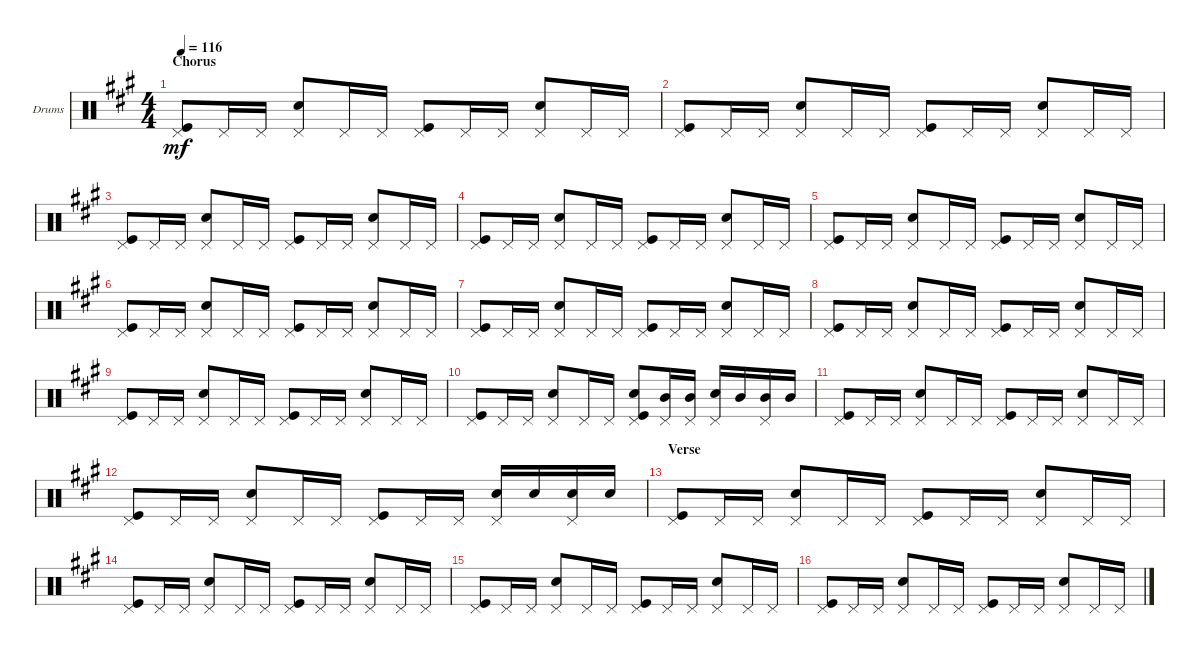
\defaultSystemsLayout 4
\bracketExtendMode groupsimilarinstruments
\firstSystemTrackNameOrientation horizontal
\otherSystemsTrackNameOrientation horizontal
\track ("Drumkit" "Drums") {instrument percussion}
\staff {score}
\articulation defaults
\ts (4 4)
\section ("" "Chorus")
\tempo 116
\clef neutral
\ks a
("Pedal Hi-Hat (hit)" "Kick (hit)").8{dy mf} "Pedal Hi-Hat (hit)".16 "Pedal Hi-Hat (hit)".16 ("Pedal Hi-Hat (hit)" "Snare (hit) 2").8 "Pedal Hi-Hat (hit)".16 "Pedal Hi-Hat (hit)".16 ("Pedal Hi-Hat (hit)" "Kick (hit)").8 "Pedal Hi-Hat (hit)".16 "Pedal Hi-Hat (hit)".16 ("Pedal Hi-Hat (hit)" "Snare (hit) 2").8 "Pedal Hi-Hat (hit)".16 "Pedal Hi-Hat (hit)".16 |
("Pedal Hi-Hat (hit)" "Kick (hit)").8 "Pedal Hi-Hat (hit)".16 "Pedal Hi-Hat (hit)".16 ("Pedal Hi-Hat (hit)" "Snare (hit) 2").8 "Pedal Hi-Hat (hit)".16 "Pedal Hi-Hat (hit)".16 ("Pedal Hi-Hat (hit)" "Kick (hit)").8 "Pedal Hi-Hat (hit)".16 "Pedal Hi-Hat (hit)".16 ("Pedal Hi-Hat (hit)" "Snare (hit) 2").8 "Pedal Hi-Hat (hit)".16 "Pedal Hi-Hat (hit)".16 |
("Pedal Hi-Hat (hit)" "Kick (hit)").8 "Pedal Hi-Hat (hit)".16 "Pedal Hi-Hat (hit)".16 ("Pedal Hi-Hat (hit)" "Snare (hit) 2").8 "Pedal Hi-Hat (hit)".16 "Pedal Hi-Hat (hit)".16 ("Pedal Hi-Hat (hit)" "Kick (hit)").8 "Pedal Hi-Hat (hit)".16 "Pedal Hi-Hat (hit)".16 ("Pedal Hi-Hat (hit)" "Snare (hit) 2").8 "Pedal Hi-Hat (hit)".16 "Pedal Hi-Hat (hit)".16 |
("Pedal Hi-Hat (hit)" "Kick (hit)").8 "Pedal Hi-Hat (hit)".16 "Pedal Hi-Hat (hit)".16 ("Pedal Hi-Hat (hit)" "Snare (hit) 2").8 "Pedal Hi-Hat (hit)".16 "Pedal Hi-Hat (hit)".16 ("Pedal Hi-Hat (hit)" "Kick (hit)").8 "Pedal Hi-Hat (hit)".16 "Pedal Hi-Hat (hit)".16 ("Pedal Hi-Hat (hit)" "Snare (hit) 2").8 "Pedal Hi-Hat (hit)".16 "Pedal Hi-Hat (hit)".16 |
("Pedal Hi-Hat (hit)" "Kick (hit)").8 "Pedal Hi-Hat (hit)".16 "Pedal Hi-Hat (hit)".16 ("Pedal Hi-Hat (hit)" "Snare (hit) 2").8 "Pedal Hi-Hat (hit)".16 "Pedal Hi-Hat (hit)".16 ("Pedal Hi-Hat (hit)" "Kick (hit)").8 "Pedal Hi-Hat (hit)".16 "Pedal Hi-Hat (hit)".16 ("Pedal Hi-Hat (hit)" "Snare (hit) 2").8 "Pedal Hi-Hat (hit)".16 "Pedal Hi-Hat (hit)".16 |
("Pedal Hi-Hat (hit)" "Kick (hit)").8 "Pedal Hi-Hat (hit)".16 "Pedal Hi-Hat (hit)".16 ("Pedal Hi-Hat (hit)" "Snare (hit) 2").8 "Pedal Hi-Hat (hit)".16 "Pedal Hi-Hat (hit)".16 ("Pedal Hi-Hat (hit)" "Kick (hit)").8 "Pedal Hi-Hat (hit)".16 "Pedal Hi-Hat (hit)".16 ("Pedal Hi-Hat (hit)" "Snare (hit) 2").8 "Pedal Hi-Hat (hit)".16 "Pedal Hi-Hat (hit)".16 |
("Pedal Hi-Hat (hit)" "Kick (hit)").8 "Pedal Hi-Hat (hit)".16 "Pedal Hi-Hat (hit)".16 ("Pedal Hi-Hat (hit)" "Snare (hit) 2").8 "Pedal Hi-Hat (hit)".16 "Pedal Hi-Hat (hit)".16 ("Pedal Hi-Hat (hit)" "Kick (hit)").8 "Pedal Hi-Hat (hit)".16 "Pedal Hi-Hat (hit)".16 ("Pedal Hi-Hat (hit)" "Snare (hit) 2").8 "Pedal Hi-Hat (hit)".16 "Pedal Hi-Hat (hit)".16 |
("Pedal Hi-Hat (hit)" "Kick (hit)").8 "Pedal Hi-Hat (hit)".16 "Pedal Hi-Hat (hit)".16 ("Pedal Hi-Hat (hit)" "Snare (hit) 2").8 "Pedal Hi-Hat (hit)".16 "Pedal Hi-Hat (hit)".16 ("Pedal Hi-Hat (hit)" "Kick (hit)").8 "Pedal Hi-Hat (hit)".16 "Pedal Hi-Hat (hit)".16 ("Pedal Hi-Hat (hit)" "Snare (hit) 2").8 "Pedal Hi-Hat (hit)".16 "Pedal Hi-Hat (hit)".16 |
("Pedal Hi-Hat (hit)" "Kick (hit)").8 "Pedal Hi-Hat (hit)".16 "Pedal Hi-Hat (hit)".16 ("Pedal Hi-Hat (hit)" "Snare (hit) 2").8 "Pedal Hi-Hat (hit)".16 "Pedal Hi-Hat (hit)".16 ("Pedal Hi-Hat (hit)" "Kick (hit)").8 "Pedal Hi-Hat (hit)".16 "Pedal Hi-Hat (hit)".16 ("Pedal Hi-Hat (hit)" "Snare (hit) 2").8 "Pedal Hi-Hat (hit)".16 "Pedal Hi-Hat (hit)".16 |
("Pedal Hi-Hat (hit)" "Kick (hit)").8 "Pedal Hi-Hat (hit)".16 "Pedal Hi-Hat (hit)".16 ("Pedal Hi-Hat (hit)" "Snare (hit) 2").8 "Pedal Hi-Hat (hit)".16 "Pedal Hi-Hat (hit)".16 ("Pedal Hi-Hat (hit)" "Kick (hit)" "Snare (hit) 2").8 ("Pedal Hi-Hat (hit)" "Mid Tom (hit)").16 ("Pedal Hi-Hat (hit)" "Mid Tom (hit)").16 ("Pedal Hi-Hat (hit)" "Snare (hit) 2").16 "Mid Tom (hit)".16 ("Pedal Hi-Hat (hit)" "Mid Tom (hit)").16 "Mid Tom (hit)".16 |
("Pedal Hi-Hat (hit)" "Kick (hit)").8 "Pedal Hi-Hat (hit)".16 "Pedal Hi-Hat (hit)".16 ("Pedal Hi-Hat (hit)" "Snare (hit) 2").8 "Pedal Hi-Hat (hit)".16 "Pedal Hi-Hat (hit)".16 ("Pedal Hi-Hat (hit)" "Kick (hit)").8 "Pedal Hi-Hat (hit)".16 "Pedal Hi-Hat (hit)".16 ("Pedal Hi-Hat (hit)" "Snare (hit) 2").8 "Pedal Hi-Hat (hit)".16 "Pedal Hi-Hat (hit)".16 |
("Pedal Hi-Hat (hit)" "Kick (hit)").8 "Pedal Hi-Hat (hit)".16 "Pedal Hi-Hat (hit)".16 ("Pedal Hi-Hat (hit)" "Snare (hit) 2").8 "Pedal Hi-Hat (hit)".16 "Pedal Hi-Hat (hit)".16 ("Pedal Hi-Hat (hit)" "Kick (hit)").8 "Pedal Hi-Hat (hit)".16 "Pedal Hi-Hat (hit)".16 ("Pedal Hi-Hat (hit)" "Snare (hit) 2").16 "Snare (hit) 2".16 ("Pedal Hi-Hat (hit)" "Snare (hit) 2").16 "Snare (hit) 2".16 |
\section ("" "Verse")
("Pedal Hi-Hat (hit)" "Kick (hit)").8 "Pedal Hi-Hat (hit)".16 "Pedal Hi-Hat (hit)".16 ("Pedal Hi-Hat (hit)" "Snare (hit) 2").8 "Pedal Hi-Hat (hit)".16 "Pedal Hi-Hat (hit)".16 ("Pedal Hi-Hat (hit)" "Kick (hit)").8 "Pedal Hi-Hat (hit)".16 "Pedal Hi-Hat (hit)".16 ("Pedal Hi-Hat (hit)" "Snare (hit) 2").8 "Pedal Hi-Hat (hit)".16 "Pedal Hi-Hat (hit)".16 |
("Pedal Hi-Hat (hit)" "Kick (hit)").8 "Pedal Hi-Hat (hit)".16 "Pedal Hi-Hat (hit)".16 ("Pedal Hi-Hat (hit)" "Snare (hit) 2").8 "Pedal Hi-Hat (hit)".16 "Pedal Hi-Hat (hit)".16 ("Pedal Hi-Hat (hit)" "Kick (hit)").8 "Pedal Hi-Hat (hit)".16 "Pedal Hi-Hat (hit)".16 ("Pedal Hi-Hat (hit)" "Snare (hit) 2").8 "Pedal Hi-Hat (hit)".16 "Pedal Hi-Hat (hit)".16 |
("Pedal Hi-Hat (hit)" "Kick (hit)").8 "Pedal Hi-Hat (hit)".16 "Pedal Hi-Hat (hit)".16 ("Pedal Hi-Hat (hit)" "Snare (hit) 2").8 "Pedal Hi-Hat (hit)".16 "Pedal Hi-Hat (hit)".16 ("Pedal Hi-Hat (hit)" "Kick (hit)").8 "Pedal Hi-Hat (hit)".16 "Pedal Hi-Hat (hit)".16 ("Pedal Hi-Hat (hit)" "Snare (hit) 2").8 "Pedal Hi-Hat (hit)".16 "Pedal Hi-Hat (hit)".16 |
("Pedal Hi-Hat (hit)" "Kick (hit)").8 "Pedal Hi-Hat (hit)".16 "Pedal Hi-Hat (hit)".16 ("Pedal Hi-Hat (hit)" "Snare (hit) 2").8 "Pedal Hi-Hat (hit)".16 "Pedal Hi-Hat (hit)".16 ("Pedal Hi-Hat (hit)" "Kick (hit)").8 "Pedal Hi-Hat (hit)".16 "Pedal Hi-Hat (hit)".16 ("Pedal Hi-Hat (hit)" "Snare (hit) 2").8 "Pedal Hi-Hat (hit)".16 "Pedal Hi-Hat (hit)".16
